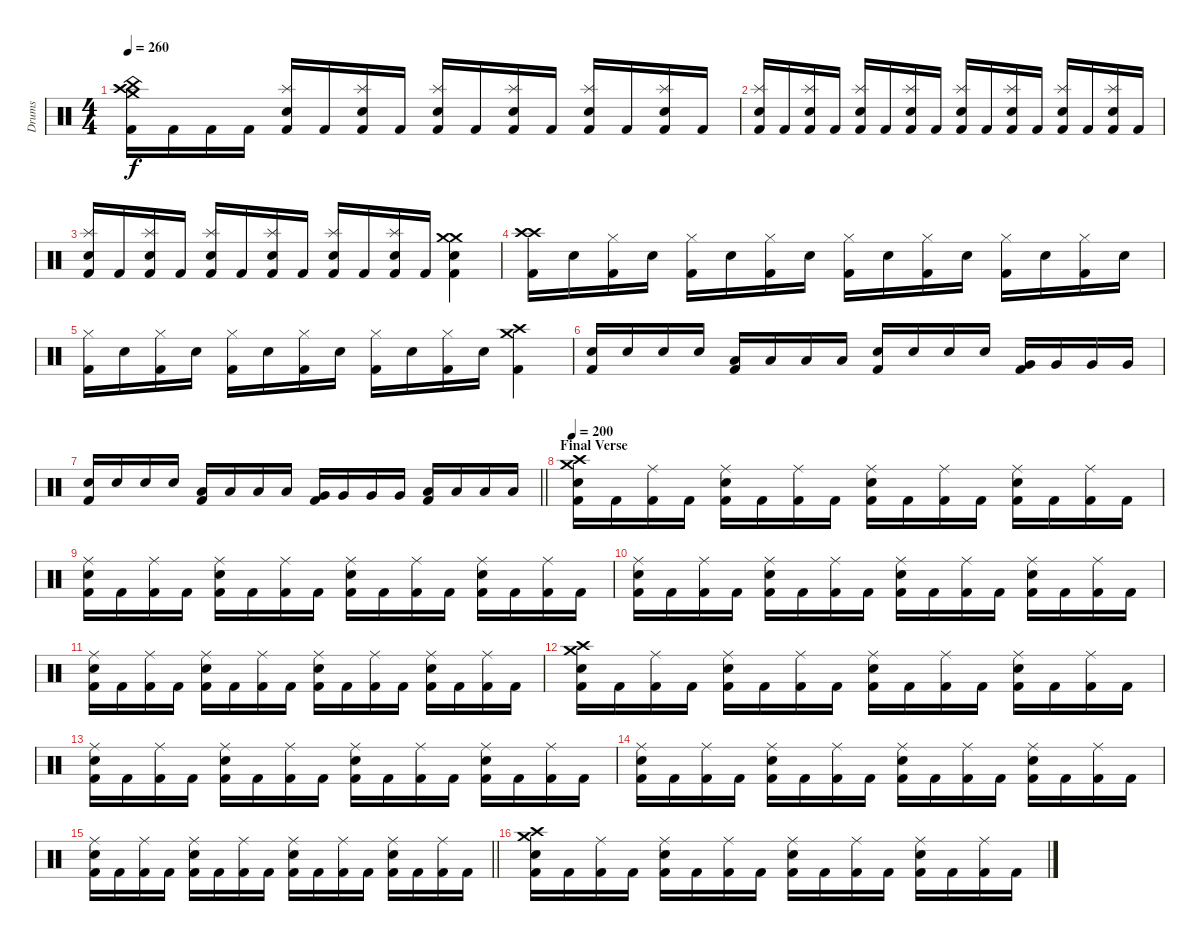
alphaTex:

\track ("Drums" "Drums") {instrument percussion}
\staff {score}
\articulation defaults
\ts (4 4)
\tempo 260
\clef neutral
\ks c
("Crash high (hit)" "Crash medium (hit)" "China (hit)" "Kick (hit) 2").16{dy f} "Kick (hit) 2".16 "Kick (hit) 2".16 "Kick (hit) 2".16 ("Splash (hit)" "Electric Snare (hit)" "Kick (hit) 2").16 "Kick (hit) 2".16 ("Splash (hit)" "Electric Snare (hit)" "Kick (hit) 2").16 "Kick (hit) 2".16 ("Splash (hit)" "Electric Snare (hit)" "Kick (hit) 2").16 "Kick (hit) 2".16 ("Splash (hit)" "Electric Snare (hit)" "Kick (hit) 2").16 "Kick (hit) 2".16 ("Splash (hit)" "Electric Snare (hit)" "Kick (hit) 2").16 "Kick (hit) 2".16 ("Splash (hit)" "Electric Snare (hit)" "Kick (hit) 2").16 "Kick (hit) 2".16 |
("Splash (hit)" "Electric Snare (hit)" "Kick (hit) 2").16 "Kick (hit) 2".16 ("Splash (hit)" "Electric Snare (hit)" "Kick (hit) 2").16 "Kick (hit) 2".16 ("Splash (hit)" "Electric Snare (hit)" "Kick (hit) 2").16 "Kick (hit) 2".16 ("Splash (hit)" "Electric Snare (hit)" "Kick (hit) 2").16 "Kick (hit) 2".16 ("Splash (hit)" "Electric Snare (hit)" "Kick (hit) 2").16 "Kick (hit) 2".16 ("Splash (hit)" "Electric Snare (hit)" "Kick (hit) 2").16 "Kick (hit) 2".16 ("Splash (hit)" "Electric Snare (hit)" "Kick (hit) 2").16 "Kick (hit) 2".16 ("Splash (hit)" "Electric Snare (hit)" "Kick (hit) 2").16 "Kick (hit) 2".16 |
("Splash (hit)" "Electric Snare (hit)" "Kick (hit) 2").16 "Kick (hit) 2".16 ("Splash (hit)" "Electric Snare (hit)" "Kick (hit) 2").16 "Kick (hit) 2".16 ("Splash (hit)" "Electric Snare (hit)" "Kick (hit) 2").16 "Kick (hit) 2".16 ("Splash (hit)" "Electric Snare (hit)" "Kick (hit) 2").16 "Kick (hit) 2".16 ("Splash (hit)" "Electric Snare (hit)" "Kick (hit) 2").16 "Kick (hit) 2".16 ("Splash (hit)" "Electric Snare (hit)" "Kick (hit) 2").16 "Kick (hit) 2".16 ("Crash medium (hit)" "Crash medium (hit)" "Electric Snare (hit)" "Kick (hit) 2").4 |
("Crash high (hit)" "Crash high (hit)" "Kick (hit) 2").16 "Electric Snare (hit)".16 ("Hi-Hat (closed)" "Kick (hit) 2").16 "Electric Snare (hit)".16 ("Hi-Hat (closed)" "Kick (hit) 2").16 "Electric Snare (hit)".16 ("Hi-Hat (closed)" "Kick (hit) 2").16 "Electric Snare (hit)".16 ("Hi-Hat (closed)" "Kick (hit) 2").16 "Electric Snare (hit)".16 ("Hi-Hat (closed)" "Kick (hit) 2").16 "Electric Snare (hit)".16 ("Hi-Hat (closed)" "Kick (hit) 2").16 "Electric Snare (hit)".16 ("Hi-Hat (closed)" "Kick (hit) 2").16 "Electric Snare (hit)".16 |
("Hi-Hat (closed)" "Kick (hit) 2").16 "Electric Snare (hit)".16 ("Hi-Hat (closed)" "Kick (hit) 2").16 "Electric Snare (hit)".16 ("Hi-Hat (closed)" "Kick (hit) 2").16 "Electric Snare (hit)".16 ("Hi-Hat (closed)" "Kick (hit) 2").16 "Electric Snare (hit)".16 ("Hi-Hat (closed)" "Kick (hit) 2").16 "Electric Snare (hit)".16 ("Hi-Hat (closed)" "Kick (hit) 2").16 "Electric Snare (hit)".16 ("Crash high (hit)" "Crash medium (hit)" "Kick (hit) 2").4 |
("Electric Snare (hit)" "Kick (hit) 2").16 "Electric Snare (hit)".16 "Electric Snare (hit)".16 "Electric Snare (hit)".16 ("Low Tom (hit)" "Kick (hit) 2").16 "Low Tom (hit)".16 "Low Tom (hit)".16 "Low Tom (hit)".16 ("Electric Snare (hit)" "Kick (hit) 2").16 "Electric Snare (hit)".16 "Electric Snare (hit)".16 "Electric Snare (hit)".16 ("Very Low Tom (hit)" "Kick (hit) 2").16 "Very Low Tom (hit)".16 "Very Low Tom (hit)".16 "Very Low Tom (hit)".16 |
\barLineRight lightlight
("Electric Snare (hit)" "Kick (hit) 2").16 "Electric Snare (hit)".16 "Electric Snare (hit)".16 "Electric Snare (hit)".16 ("Low Tom (hit)" "Kick (hit) 2").16 "Low Tom (hit)".16 "Low Tom (hit)".16 "Low Tom (hit)".16 ("Very Low Tom (hit)" "Kick (hit) 2").16 "Very Low Tom (hit)".16 "Very Low Tom (hit)".16 "Very Low Tom (hit)".16 ("Low Floor Tom (hit)" "Kick (hit) 2").16 "Low Floor Tom (hit)".16 "Low Floor Tom (hit)".16 "Low Floor Tom (hit)".16 |
\section ("" "Final Verse")
\tempo 200
("Crash medium (hit)" "Crash high (hit)" "Electric Snare (hit)" "Kick (hit) 2").16 "Kick (hit) 2".16 ("Ride (middle)" "Kick (hit) 2").16 "Kick (hit) 2".16 ("Ride (middle)" "Electric Snare (hit)" "Kick (hit) 2").16 "Kick (hit) 2".16 ("Ride (middle)" "Kick (hit) 2").16 "Kick (hit) 2".16 ("Ride (middle)" "Electric Snare (hit)" "Kick (hit) 2").16 "Kick (hit) 2".16 ("Ride (middle)" "Kick (hit) 2").16 "Kick (hit) 2".16 ("Ride (middle)" "Electric Snare (hit)" "Kick (hit) 2").16 "Kick (hit) 2".16 ("Ride (middle)" "Kick (hit) 2").16 "Kick (hit) 2".16 |
("Ride (middle)" "Electric Snare (hit)" "Kick (hit) 2").16 "Kick (hit) 2".16 ("Ride (middle)" "Kick (hit) 2").16 "Kick (hit) 2".16 ("Ride (middle)" "Electric Snare (hit)" "Kick (hit) 2").16 "Kick (hit) 2".16 ("Ride (middle)" "Kick (hit) 2").16 "Kick (hit) 2".16 ("Ride (middle)" "Electric Snare (hit)" "Kick (hit) 2").16 "Kick (hit) 2".16 ("Ride (middle)" "Kick (hit) 2").16 "Kick (hit) 2".16 ("Ride (middle)" "Electric Snare (hit)" "Kick (hit) 2").16 "Kick (hit) 2".16 ("Ride (middle)" "Kick (hit) 2").16 "Kick (hit) 2".16 |
("Ride (middle)" "Electric Snare (hit)" "Kick (hit) 2").16 "Kick (hit) 2".16 ("Ride (middle)" "Kick (hit) 2").16 "Kick (hit) 2".16 ("Ride (middle)" "Electric Snare (hit)" "Kick (hit) 2").16 "Kick (hit) 2".16 ("Ride (middle)" "Kick (hit) 2").16 "Kick (hit) 2".16 ("Ride (middle)" "Electric Snare (hit)" "Kick (hit) 2").16 "Kick (hit) 2".16 ("Ride (middle)" "Kick (hit) 2").16 "Kick (hit) 2".16 ("Ride (middle)" "Electric Snare (hit)" "Kick (hit) 2").16 "Kick (hit) 2".16 ("Ride (middle)" "Kick (hit) 2").16 "Kick (hit) 2".16 |
("Ride (middle)" "Electric Snare (hit)" "Kick (hit) 2").16 "Kick (hit) 2".16 ("Ride (middle)" "Kick (hit) 2").16 "Kick (hit) 2".16 ("Ride (middle)" "Electric Snare (hit)" "Kick (hit) 2").16 "Kick (hit) 2".16 ("Ride (middle)" "Kick (hit) 2").16 "Kick (hit) 2".16 ("Ride (middle)" "Electric Snare (hit)" "Kick (hit) 2").16 "Kick (hit) 2".16 ("Ride (middle)" "Kick (hit) 2").16 "Kick (hit) 2".16 ("Ride (middle)" "Electric Snare (hit)" "Kick (hit) 2").16 "Kick (hit) 2".16 ("Ride (middle)" "Kick (hit) 2").16 "Kick (hit) 2".16 |
("Crash medium (hit)" "Crash high (hit)" "Electric Snare (hit)" "Kick (hit) 2").16 "Kick (hit) 2".16 ("Ride (middle)" "Kick (hit) 2").16 "Kick (hit) 2".16 ("Ride (middle)" "Electric Snare (hit)" "Kick (hit) 2").16 "Kick (hit) 2".16 ("Ride (middle)" "Kick (hit) 2").16 "Kick (hit) 2".16 ("Ride (middle)" "Electric Snare (hit)" "Kick (hit) 2").16 "Kick (hit) 2".16 ("Ride (middle)" "Kick (hit) 2").16 "Kick (hit) 2".16 ("Ride (middle)" "Electric Snare (hit)" "Kick (hit) 2").16 "Kick (hit) 2".16 ("Ride (middle)" "Kick (hit) 2").16 "Kick (hit) 2".16 |
("Ride (middle)" "Electric Snare (hit)" "Kick (hit) 2").16 "Kick (hit) 2".16 ("Ride (middle)" "Kick (hit) 2").16 "Kick (hit) 2".16 ("Ride (middle)" "Electric Snare (hit)" "Kick (hit) 2").16 "Kick (hit) 2".16 ("Ride (middle)" "Kick (hit) 2").16 "Kick (hit) 2".16 ("Ride (middle)" "Electric Snare (hit)" "Kick (hit) 2").16 "Kick (hit) 2".16 ("Ride (middle)" "Kick (hit) 2").16 "Kick (hit) 2".16 ("Ride (middle)" "Electric Snare (hit)" "Kick (hit) 2").16 "Kick (hit) 2".16 ("Ride (middle)" "Kick (hit) 2").16 "Kick (hit) 2".16 |
("Ride (middle)" "Electric Snare (hit)" "Kick (hit) 2").16 "Kick (hit) 2".16 ("Ride (middle)" "Kick (hit) 2").16 "Kick (hit) 2".16 ("Ride (middle)" "Electric Snare (hit)" "Kick (hit) 2").16 "Kick (hit) 2".16 ("Ride (middle)" "Kick (hit) 2").16 "Kick (hit) 2".16 ("Ride (middle)" "Electric Snare (hit)" "Kick (hit) 2").16 "Kick (hit) 2".16 ("Ride (middle)" "Kick (hit) 2").16 "Kick (hit) 2".16 ("Ride (middle)" "Electric Snare (hit)" "Kick (hit) 2").16 "Kick (hit) 2".16 ("Ride (middle)" "Kick (hit) 2").16 "Kick (hit) 2".16 |
\barLineRight lightlight
("Ride (middle)" "Electric Snare (hit)" "Kick (hit) 2").16 "Kick (hit) 2".16 ("Ride (middle)" "Kick (hit) 2").16 "Kick (hit) 2".16 ("Ride (middle)" "Electric Snare (hit)" "Kick (hit) 2").16 "Kick (hit) 2".16 ("Ride (middle)" "Kick (hit) 2").16 "Kick (hit) 2".16 ("Ride (middle)" "Electric Snare (hit)" "Kick (hit) 2").16 "Kick (hit) 2".16 ("Ride (middle)" "Kick (hit) 2").16 "Kick (hit) 2".16 ("Ride (middle)" "Electric Snare (hit)" "Kick (hit) 2").16 "Kick (hit) 2".16 ("Ride (middle)" "Kick (hit) 2").16 "Kick (hit) 2".16 |
("Crash medium (hit)" "Crash high (hit)" "Electric Snare (hit)" "Kick (hit) 2").16 "Kick (hit) 2".16 ("Ride (middle)" "Kick (hit) 2").16 "Kick (hit) 2".16 ("Ride (middle)" "Electric Snare (hit)" "Kick (hit) 2").16 "Kick (hit) 2".16 ("Ride (middle)" "Kick (hit) 2").16 "Kick (hit) 2".16 ("Ride (middle)" "Electric Snare (hit)" "Kick (hit) 2").16 "Kick (hit) 2".16 ("Ride (middle)" "Kick (hit) 2").16 "Kick (hit) 2".16 ("Ride (middle)" "Electric Snare (hit)" "Kick (hit) 2").16 "Kick (hit) 2".16 ("Ride (middle)" "Kick (hit) 2").16 "Kick (hit) 2".16
